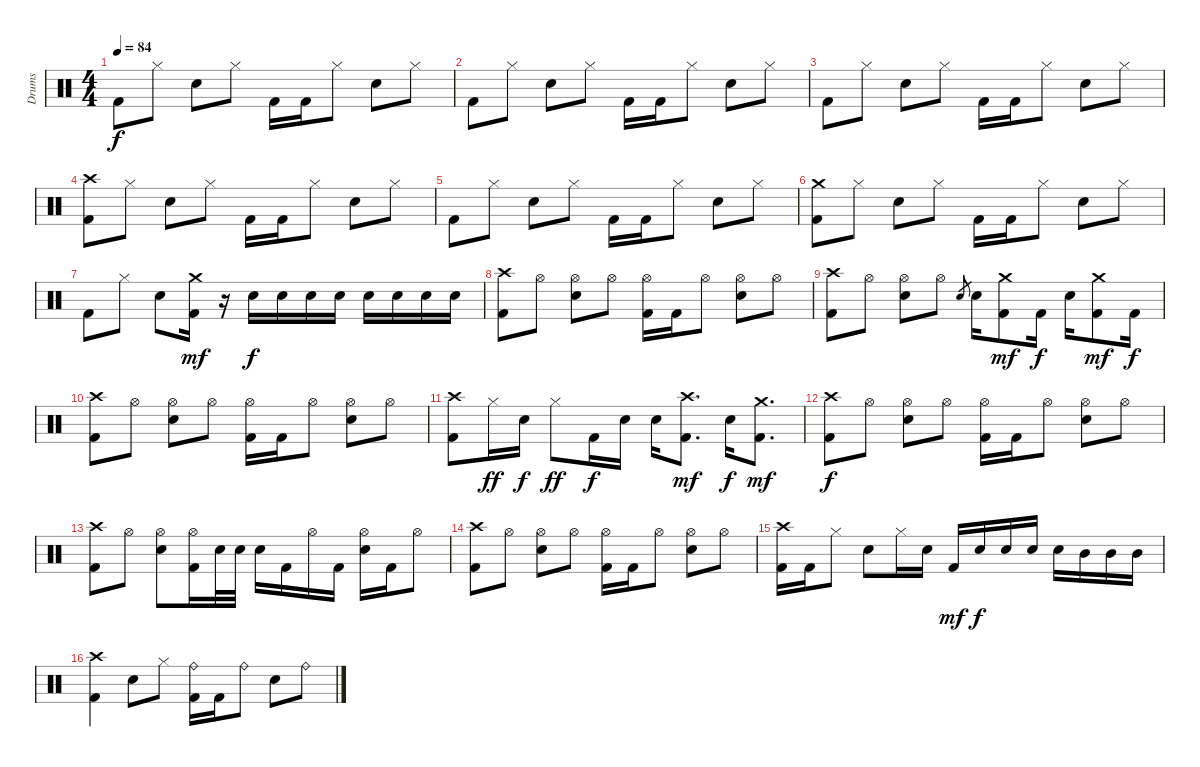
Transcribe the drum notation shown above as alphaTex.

\track ("Drums" "Drums") {instrument percussion}
\staff {score}
\articulation defaults
\ts (4 4)
\tempo 84
\clef neutral
\ks c "Kick (hit) 2".8{dy f} "Hi-Hat (closed)".8 "Snare (hit) 2".8 "Hi-Hat (closed)".8 "Kick (hit) 2".16 "Kick (hit) 2".16 "Hi-Hat (closed)".8 "Snare (hit) 2".8 "Hi-Hat (closed)".8
|
"Kick (hit) 2".8 "Hi-Hat (closed)".8 "Snare (hit) 2".8 "Hi-Hat (closed)".8 "Kick (hit) 2".16 "Kick (hit) 2".16 "Hi-Hat (closed)".8 "Snare (hit) 2".8 "Hi-Hat (closed)".8 |
"Kick (hit) 2".8 "Hi-Hat (closed)".8 "Snare (hit) 2".8 "Hi-Hat (closed)".8 "Kick (hit) 2".16 "Kick (hit) 2".16 "Hi-Hat (closed)".8 "Snare (hit) 2".8 "Hi-Hat (closed)".8 |
("Kick (hit) 2" "Crash high (hit)").8 "Hi-Hat (closed)".8 "Snare (hit) 2".8 "Hi-Hat (closed)".8 "Kick (hit) 2".16 "Kick (hit) 2".16 "Hi-Hat (closed)".8 "Snare (hit) 2".8 "Hi-Hat (closed)".8 |
"Kick (hit) 2".8 "Hi-Hat (closed)".8 "Snare (hit) 2".8 "Hi-Hat (closed)".8 "Kick (hit) 2".16 "Kick (hit) 2".16 "Hi-Hat (closed)".8 "Snare (hit) 2".8 "Hi-Hat (closed)".8 |
("Kick (hit) 2" "Crash medium (hit)").8 "Hi-Hat (closed)".8 "Snare (hit) 2".8 "Hi-Hat (closed)".8 "Kick (hit) 2".16 "Kick (hit) 2".16 "Hi-Hat (closed)".8 "Snare (hit) 2".8 "Hi-Hat (closed)".8 |
"Kick (hit) 2".8 "Hi-Hat (closed)".8 "Snare (hit) 2".8 ("Kick (hit) 2" "Crash medium (hit)").16{dy mf} r.16{volume 5} "Snare (hit) 2".16{dy f volume 13} "Snare (hit) 2".16 "Snare (hit) 2".16 "Snare (hit) 2".16 "Snare (hit) 2".16 "Snare (hit) 2".16 "Snare (hit) 2".16 "Snare (hit) 2".16 |
("Kick (hit) 2" "Crash high (hit)").8 "Hi-Hat (open)".8 ("Snare (hit) 2" "Hi-Hat (open)").8 "Hi-Hat (open)".8 ("Kick (hit) 2" "Hi-Hat (open)").16 "Kick (hit) 2".16 "Hi-Hat (open)".8 ("Snare (hit) 2" "Hi-Hat (open)").8 "Hi-Hat (open)".8 |
("Kick (hit) 2" "Crash high (hit)").8 "Hi-Hat (open)".8 ("Snare (hit) 2" "Hi-Hat (open)").8 "Hi-Hat (open)".8 "Snare (hit) 2".8{gr} "Snare (hit) 2".16 ("Kick (hit) 2" "Crash medium (hit)").8{dy mf} "Kick (hit) 2".16{dy f} "Snare (hit) 2".16 ("Kick (hit) 2" "Crash medium (hit)").8{dy mf} "Kick (hit) 2".16{dy f} |
("Kick (hit) 2" "Crash high (hit)").8 "Hi-Hat (open)".8 ("Snare (hit) 2" "Hi-Hat (open)").8 "Hi-Hat (open)".8 ("Kick (hit) 2" "Hi-Hat (open)").16 "Kick (hit) 2".16 "Hi-Hat (open)".8 ("Snare (hit) 2" "Hi-Hat (open)").8 "Hi-Hat (open)".8 |
("Kick (hit) 2" "Crash high (hit)").8 "Hi-Hat (closed)".16{dy ff} "Snare (hit) 2".16{dy f} "Hi-Hat (closed)".8{dy ff} "Kick (hit) 2".16{dy f} "Snare (hit) 2".16 "Snare (hit) 2".16 ("Kick (hit) 2" "Crash high (hit)").8{d dy mf} "Snare (hit) 2".16{dy f} ("Kick (hit) 2" "Crash medium (hit)").8{d dy mf} |
("Kick (hit) 2" "Crash high (hit)").8{dy f} "Hi-Hat (open)".8 ("Snare (hit) 2" "Hi-Hat (open)").8 "Hi-Hat (open)".8 ("Kick (hit) 2" "Hi-Hat (open)").16 "Kick (hit) 2".16 "Hi-Hat (open)".8 ("Snare (hit) 2" "Hi-Hat (open)").8 "Hi-Hat (open)".8 |
("Kick (hit) 2" "Crash high (hit)").8 "Hi-Hat (open)".8 ("Snare (hit) 2" "Hi-Hat (open)").8 ("Kick (hit) 2" "Hi-Hat (open)").16 "Snare (hit) 2".32 "Snare (hit) 2".32 "Snare (hit) 2".16 "Kick (hit) 2".16 "Hi-Hat (open)".16 "Kick (hit) 2".16 ("Snare (hit) 2" "Hi-Hat (open)").16 "Kick (hit) 2".16 "Hi-Hat (open)".8 |
("Kick (hit) 2" "Crash high (hit)").8 "Hi-Hat (open)".8 ("Snare (hit) 2" "Hi-Hat (open)").8 "Hi-Hat (open)".8 ("Kick (hit) 2" "Hi-Hat (open)").16 "Kick (hit) 2".16 "Hi-Hat (open)".8 ("Snare (hit) 2" "Hi-Hat (open)").8 "Hi-Hat (open)".8 |
("Kick (hit) 2" "Crash high (hit)").16 "Kick (hit) 2".16 "Hi-Hat (closed)".8 "Snare (hit) 2".8 "Hi-Hat (closed)".16 "Snare (hit) 2".16 "Kick (hit) 2".16{dy mf} "Snare (hit) 2".16{dy f} "Snare (hit) 2".16 "Snare (hit) 2".16 "Snare (hit) 2".16 "Mid Tom (hit)".16 "Mid Tom (hit)".16 "Mid Tom (hit)".16 |
("Kick (hit) 2" "Crash high (hit)").4 "Snare (hit) 2".8 "Hi-Hat (closed)".8 ("Kick (hit) 2" "Ride (bell)").16 "Kick (hit) 2".16 "Ride (bell)".8 "Snare (hit) 2".8 "Ride (bell)".8
